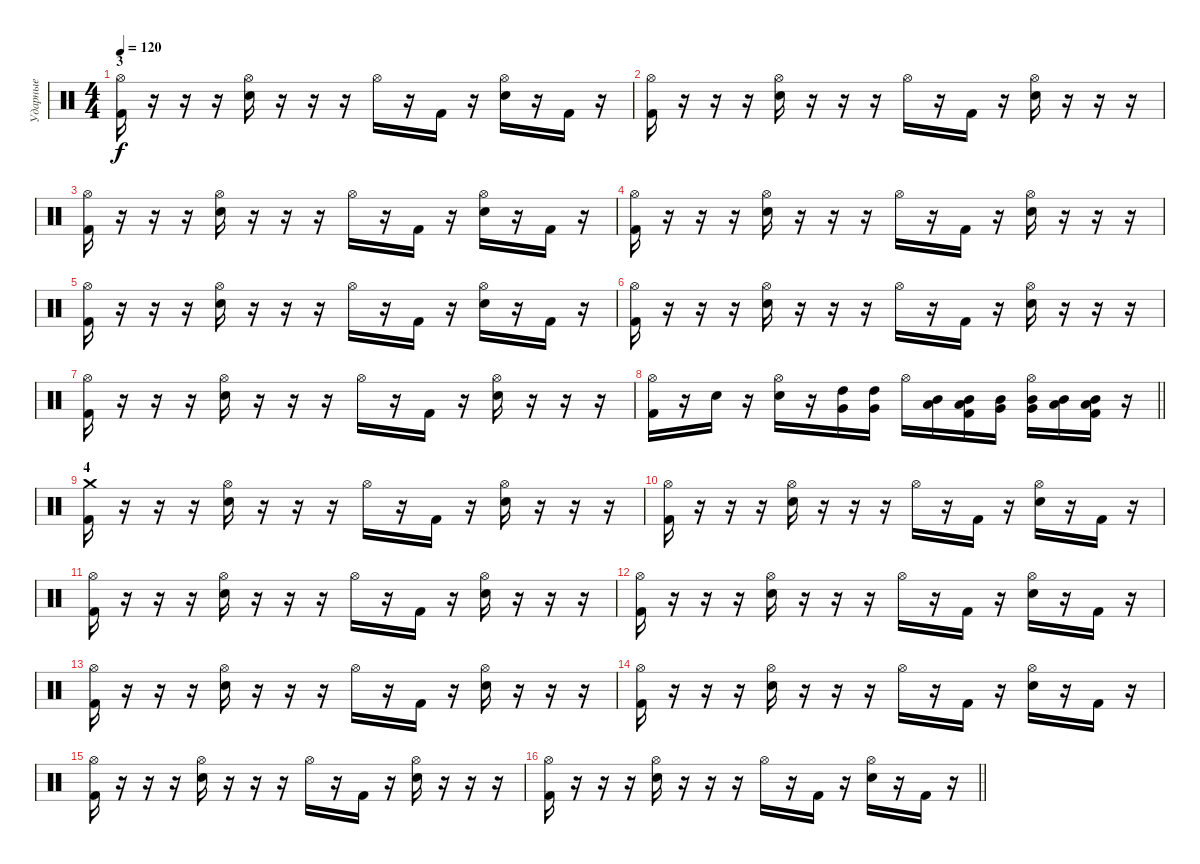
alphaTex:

\track ("Ударные" "Ударные") {instrument percussion}
\staff {score}
\articulation defaults
\ts (4 4)
\section ("" "3")
\tempo 120
\clef neutral
\ks c
("Hi-Hat (open)" "Kick (hit) 2").16{dy f} r.16 r.16 r.16 ("Hi-Hat (open)" "Snare (hit) 2").16 r.16 r.16 r.16 "Hi-Hat (open)".16 r.16 "Kick (hit) 2".16 r.16 ("Hi-Hat (open)" "Snare (hit) 2").16 r.16 "Kick (hit) 2".16 r.16 |
("Hi-Hat (open)" "Kick (hit) 2").16 r.16 r.16 r.16 ("Hi-Hat (open)" "Snare (hit) 2").16 r.16 r.16 r.16 "Hi-Hat (open)".16 r.16 "Kick (hit) 2".16 r.16 ("Hi-Hat (open)" "Snare (hit) 2").16 r.16 r.16 r.16 |
("Hi-Hat (open)" "Kick (hit) 2").16 r.16 r.16 r.16 ("Hi-Hat (open)" "Snare (hit) 2").16 r.16 r.16 r.16 "Hi-Hat (open)".16 r.16 "Kick (hit) 2".16 r.16 ("Hi-Hat (open)" "Snare (hit) 2").16 r.16 "Kick (hit) 2".16 r.16 |
("Hi-Hat (open)" "Kick (hit) 2").16 r.16 r.16 r.16 ("Hi-Hat (open)" "Snare (hit) 2").16 r.16 r.16 r.16 "Hi-Hat (open)".16 r.16 "Kick (hit) 2".16 r.16 ("Hi-Hat (open)" "Snare (hit) 2").16 r.16 r.16 r.16 |
("Hi-Hat (open)" "Kick (hit) 2").16 r.16 r.16 r.16 ("Hi-Hat (open)" "Snare (hit) 2").16 r.16 r.16 r.16 "Hi-Hat (open)".16 r.16 "Kick (hit) 2".16 r.16 ("Hi-Hat (open)" "Snare (hit) 2").16 r.16 "Kick (hit) 2".16 r.16 |
("Hi-Hat (open)" "Kick (hit) 2").16 r.16 r.16 r.16 ("Hi-Hat (open)" "Snare (hit) 2").16 r.16 r.16 r.16 "Hi-Hat (open)".16 r.16 "Kick (hit) 2".16 r.16 ("Hi-Hat (open)" "Snare (hit) 2").16 r.16 r.16 r.16 |
("Hi-Hat (open)" "Kick (hit) 2").16 r.16 r.16 r.16 ("Hi-Hat (open)" "Snare (hit) 2").16 r.16 r.16 r.16 "Hi-Hat (open)".16 r.16 "Kick (hit) 2".16 r.16 ("Hi-Hat (open)" "Snare (hit) 2").16 r.16 r.16 r.16 |
\barLineRight lightlight
("Hi-Hat (open)" "Kick (hit) 2").16 r.16 "Snare (hit) 2".16 r.16 ("Hi-Hat (open)" "Snare (hit) 2").16 r.16 ("High Tom (hit)" "Very Low Tom (hit)").16 ("High Tom (hit)" "Very Low Tom (hit)").16 "Hi-Hat (open)".16 ("Mid Tom (hit)" "Low Tom (hit)").16 ("Mid Tom (hit)" "Low Tom (hit)" "Kick (hit) 2").16 ("Mid Tom (hit)" "Very Low Tom (hit)").16 ("Hi-Hat (open)" "Mid Tom (hit)" "Very Low Tom (hit)").16 ("Mid Tom (hit)" "Low Floor Tom (hit)").16 ("Mid Tom (hit)" "Low Floor Tom (hit)" "Kick (hit) 2").16 r.16 |
\section ("" "4")
("Crash medium (hit)" "Kick (hit) 2").16 r.16 r.16 r.16 ("Hi-Hat (open)" "Snare (hit) 2").16 r.16 r.16 r.16 "Hi-Hat (open)".16 r.16 "Kick (hit) 2".16 r.16 ("Hi-Hat (open)" "Snare (hit) 2").16 r.16 r.16 r.16 |
("Hi-Hat (open)" "Kick (hit) 2").16 r.16 r.16 r.16 ("Hi-Hat (open)" "Snare (hit) 2").16 r.16 r.16 r.16 "Hi-Hat (open)".16 r.16 "Kick (hit) 2".16 r.16 ("Hi-Hat (open)" "Snare (hit) 2").16 r.16 "Kick (hit) 2".16 r.16 |
("Hi-Hat (open)" "Kick (hit) 2").16 r.16 r.16 r.16 ("Hi-Hat (open)" "Snare (hit) 2").16 r.16 r.16 r.16 "Hi-Hat (open)".16 r.16 "Kick (hit) 2".16 r.16 ("Hi-Hat (open)" "Snare (hit) 2").16 r.16 r.16 r.16 |
("Hi-Hat (open)" "Kick (hit) 2").16 r.16 r.16 r.16 ("Hi-Hat (open)" "Snare (hit) 2").16 r.16 r.16 r.16 "Hi-Hat (open)".16 r.16 "Kick (hit) 2".16 r.16 ("Hi-Hat (open)" "Snare (hit) 2").16 r.16 "Kick (hit) 2".16 r.16 |
("Hi-Hat (open)" "Kick (hit) 2").16 r.16 r.16 r.16 ("Hi-Hat (open)" "Snare (hit) 2").16 r.16 r.16 r.16 "Hi-Hat (open)".16 r.16 "Kick (hit) 2".16 r.16 ("Hi-Hat (open)" "Snare (hit) 2").16 r.16 r.16 r.16 |
("Hi-Hat (open)" "Kick (hit) 2").16 r.16 r.16 r.16 ("Hi-Hat (open)" "Snare (hit) 2").16 r.16 r.16 r.16 "Hi-Hat (open)".16 r.16 "Kick (hit) 2".16 r.16 ("Hi-Hat (open)" "Snare (hit) 2").16 r.16 "Kick (hit) 2".16 r.16 |
("Hi-Hat (open)" "Kick (hit) 2").16 r.16 r.16 r.16 ("Hi-Hat (open)" "Snare (hit) 2").16 r.16 r.16 r.16 "Hi-Hat (open)".16 r.16 "Kick (hit) 2".16 r.16 ("Hi-Hat (open)" "Snare (hit) 2").16 r.16 r.16 r.16 |
\barLineRight lightlight
("Hi-Hat (open)" "Kick (hit) 2").16 r.16 r.16 r.16 ("Hi-Hat (open)" "Snare (hit) 2").16 r.16 r.16 r.16 "Hi-Hat (open)".16 r.16 "Kick (hit) 2".16 r.16 ("Hi-Hat (open)" "Snare (hit) 2").16 r.16 "Kick (hit) 2".16 r.16
